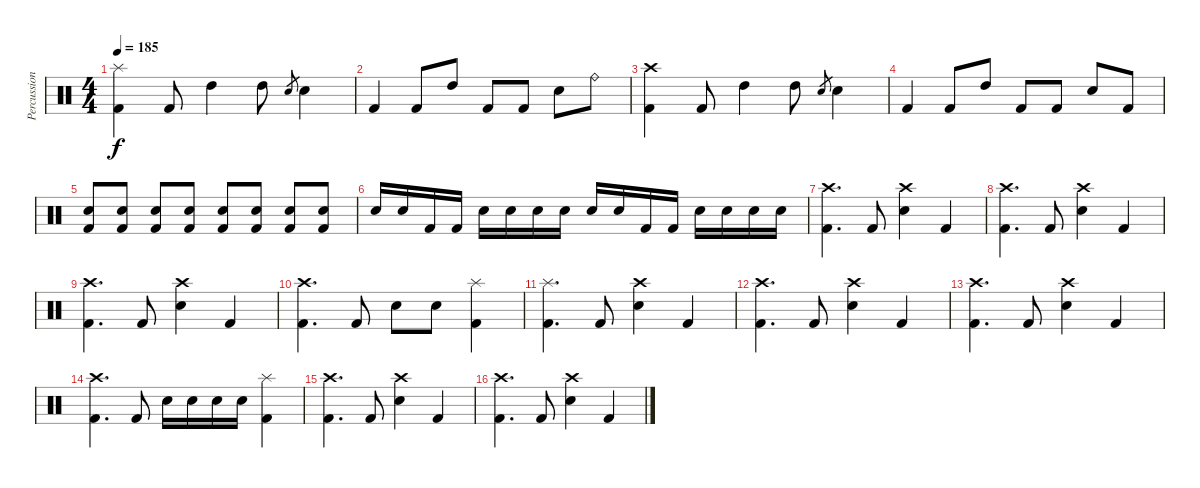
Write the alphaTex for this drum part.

\track ("Percussion" "Percussion") {instrument percussion}
\staff {score}
\articulation defaults
\ts (4 4)
\tempo 185
\clef neutral
\ks c
("Splash (hit)" "Kick (hit) 2").4{dy f} "Kick (hit) 2".8 "High Tom (hit)".4 "High Tom (hit)".8 "Snare (hit) 2".8{gr} "Snare (hit) 2".4 |
"Kick (hit) 2".4 "Kick (hit) 2".8 "High Tom (hit)".8 "Kick (hit) 2".8 "Kick (hit) 2".8 "Snare (hit) 2".8 "Ride (bell)".8 |
("Crash high (hit)" "Kick (hit) 2").4 "Kick (hit) 2".8 "High Tom (hit)".4 "High Tom (hit)".8 "Snare (hit) 2".8{gr} "Snare (hit) 2".4 |
"Kick (hit) 2".4 "Kick (hit) 2".8 "High Tom (hit)".8 "Kick (hit) 2".8 "Kick (hit) 2".8 "Snare (hit) 2".8 "Kick (hit) 2".8 |
("Snare (hit) 2" "Kick (hit) 2").8 ("Snare (hit) 2" "Kick (hit) 2").8{volume 7} ("Snare (hit) 2" "Kick (hit) 2").8{volume 13} ("Snare (hit) 2" "Kick (hit) 2").8 ("Snare (hit) 2" "Kick (hit) 2").8 ("Snare (hit) 2" "Kick (hit) 2").8 ("Snare (hit) 2" "Kick (hit) 2").8 ("Snare (hit) 2" "Kick (hit) 2").8 |
"Snare (hit) 2".16 "Snare (hit) 2".16 "Kick (hit) 2".16 "Kick (hit) 2".16 "Snare (hit) 2".16 "Snare (hit) 2".16 "Snare (hit) 2".16 "Snare (hit) 2".16 "Snare (hit) 2".16 "Snare (hit) 2".16 "Kick (hit) 2".16 "Kick (hit) 2".16 "Snare (hit) 2".16 "Snare (hit) 2".16 "Snare (hit) 2".16 "Snare (hit) 2".16 |
("Crash high (hit)" "Kick (hit) 2").4{d} "Kick (hit) 2".8 ("Crash high (hit)" "Snare (hit) 2").4 "Kick (hit) 2".4 |
("Crash high (hit)" "Kick (hit) 2").4{d} "Kick (hit) 2".8 ("Crash high (hit)" "Snare (hit) 2").4 "Kick (hit) 2".4 |
("Crash high (hit)" "Kick (hit) 2").4{d} "Kick (hit) 2".8 ("Crash high (hit)" "Snare (hit) 2").4 "Kick (hit) 2".4 |
("Crash high (hit)" "Kick (hit) 2").4{d} "Kick (hit) 2".8 "Snare (hit) 2".8 "Snare (hit) 2".8 ("Splash (hit)" "Kick (hit) 2").4 |
("Splash (hit)" "Kick (hit) 2").4{d} "Kick (hit) 2".8 ("Crash high (hit)" "Snare (hit) 2").4 "Kick (hit) 2".4 |
("Crash high (hit)" "Kick (hit) 2").4{d} "Kick (hit) 2".8 ("Crash high (hit)" "Snare (hit) 2").4 "Kick (hit) 2".4 |
("Crash high (hit)" "Kick (hit) 2").4{d} "Kick (hit) 2".8 ("Crash high (hit)" "Snare (hit) 2").4 "Kick (hit) 2".4 |
("Crash high (hit)" "Kick (hit) 2").4{d} "Kick (hit) 2".8 "Snare (hit) 2".16 "Snare (hit) 2".16 "Snare (hit) 2".16 "Snare (hit) 2".16 ("Splash (hit)" "Kick (hit) 2").4 |
("Crash high (hit)" "Kick (hit) 2").4{d} "Kick (hit) 2".8 ("Crash high (hit)" "Snare (hit) 2").4 "Kick (hit) 2".4 |
("Crash high (hit)" "Kick (hit) 2").4{d} "Kick (hit) 2".8 ("Crash high (hit)" "Snare (hit) 2").4 "Kick (hit) 2".4
